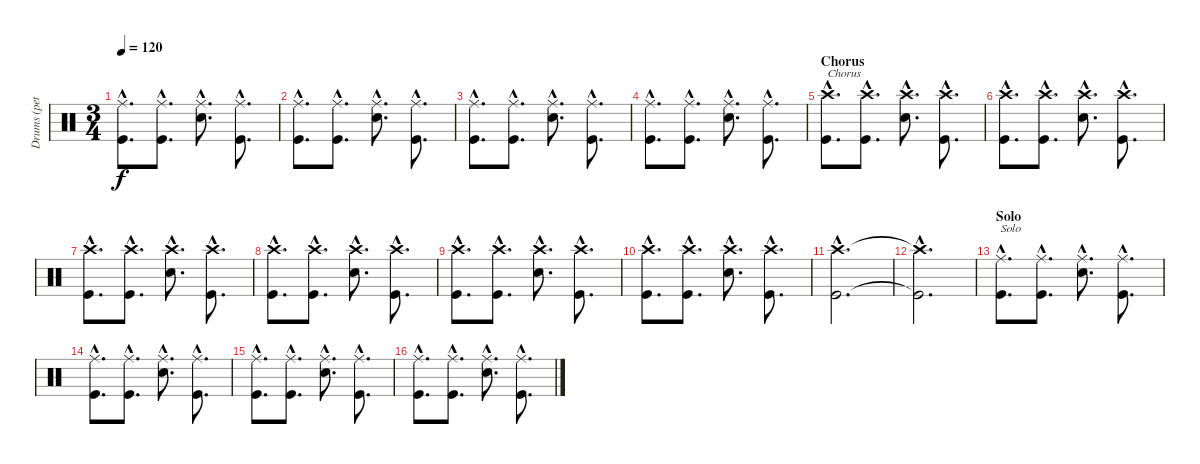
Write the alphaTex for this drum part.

\track ("Drums (pete)" "Drums (pet") {instrument percussion}
\staff {score}
\articulation defaults
\ts (3 4)
\tempo 120
\clef neutral
\ks c
("Ride (middle)"{hac} "Kick (hit)"{hac}).8{d dy f} ("Ride (middle)"{hac} "Kick (hit)"{hac}).8{d} ("Ride (middle)"{hac} "Snare (hit) 2"{hac}).8{d} ("Ride (middle)"{hac} "Kick (hit)"{hac}).8{d} |
("Ride (middle)"{hac} "Kick (hit)"{hac}).8{d} ("Ride (middle)"{hac} "Kick (hit)"{hac}).8{d} ("Ride (middle)"{hac} "Snare (hit) 2"{hac}).8{d} ("Ride (middle)"{hac} "Kick (hit)"{hac}).8{d} |
("Ride (middle)"{hac} "Kick (hit)"{hac}).8{d} ("Ride (middle)"{hac} "Kick (hit)"{hac}).8{d} ("Ride (middle)"{hac} "Snare (hit) 2"{hac}).8{d} ("Ride (middle)"{hac} "Kick (hit)"{hac}).8{d} |
("Ride (middle)"{hac} "Kick (hit)"{hac}).8{d} ("Ride (middle)"{hac} "Kick (hit)"{hac}).8{d} ("Ride (middle)"{hac} "Snare (hit) 2"{hac}).8{d} ("Ride (middle)"{hac} "Kick (hit)"{hac}).8{d} |
\section ("" "Chorus")
("Crash high (hit)"{hac} "Kick (hit)"{hac}).8{d txt "Chorus"} ("Crash high (hit)"{hac} "Kick (hit)"{hac}).8{d} ("Crash high (hit)"{hac} "Snare (hit) 2"{hac}).8{d} ("Crash high (hit)"{hac} "Kick (hit)"{hac}).8{d} |
("Crash high (hit)"{hac} "Kick (hit)"{hac}).8{d} ("Crash high (hit)"{hac} "Kick (hit)"{hac}).8{d} ("Crash high (hit)"{hac} "Snare (hit) 2"{hac}).8{d} ("Crash high (hit)"{hac} "Kick (hit)"{hac}).8{d} |
("Crash high (hit)"{hac} "Kick (hit)"{hac}).8{d} ("Crash high (hit)"{hac} "Kick (hit)"{hac}).8{d} ("Crash high (hit)"{hac} "Snare (hit) 2"{hac}).8{d} ("Crash high (hit)"{hac} "Kick (hit)"{hac}).8{d} |
("Crash high (hit)"{hac} "Kick (hit)"{hac}).8{d} ("Crash high (hit)"{hac} "Kick (hit)"{hac}).8{d} ("Crash high (hit)"{hac} "Snare (hit) 2"{hac}).8{d} ("Crash high (hit)"{hac} "Kick (hit)"{hac}).8{d} |
("Crash high (hit)"{hac} "Kick (hit)"{hac}).8{d} ("Crash high (hit)"{hac} "Kick (hit)"{hac}).8{d} ("Crash high (hit)"{hac} "Snare (hit) 2"{hac}).8{d} ("Crash high (hit)"{hac} "Kick (hit)"{hac}).8{d} |
("Crash high (hit)"{hac} "Kick (hit)"{hac}).8{d} ("Crash high (hit)"{hac} "Kick (hit)"{hac}).8{d} ("Crash high (hit)"{hac} "Snare (hit) 2"{hac}).8{d} ("Crash high (hit)"{hac} "Kick (hit)"{hac}).8{d} |
("Crash high (hit)"{hac} "Kick (hit)"{hac}).2{d} |
("Crash high (hit)"{hac t} "Kick (hit)"{hac t}).2{d} |
\section ("" "Solo")
("Ride (middle)"{hac} "Kick (hit)"{hac}).8{d txt "Solo"} ("Ride (middle)"{hac} "Kick (hit)"{hac}).8{d} ("Ride (middle)"{hac} "Snare (hit) 2"{hac}).8{d} ("Ride (middle)"{hac} "Kick (hit)"{hac}).8{d} |
("Ride (middle)"{hac} "Kick (hit)"{hac}).8{d} ("Ride (middle)"{hac} "Kick (hit)"{hac}).8{d} ("Ride (middle)"{hac} "Snare (hit) 2"{hac}).8{d} ("Ride (middle)"{hac} "Kick (hit)"{hac}).8{d} |
("Ride (middle)"{hac} "Kick (hit)"{hac}).8{d} ("Ride (middle)"{hac} "Kick (hit)"{hac}).8{d} ("Ride (middle)"{hac} "Snare (hit) 2"{hac}).8{d} ("Ride (middle)"{hac} "Kick (hit)"{hac}).8{d} |
("Ride (middle)"{hac} "Kick (hit)"{hac}).8{d} ("Ride (middle)"{hac} "Kick (hit)"{hac}).8{d} ("Ride (middle)"{hac} "Snare (hit) 2"{hac}).8{d} ("Ride (middle)"{hac} "Kick (hit)"{hac}).8{d}
